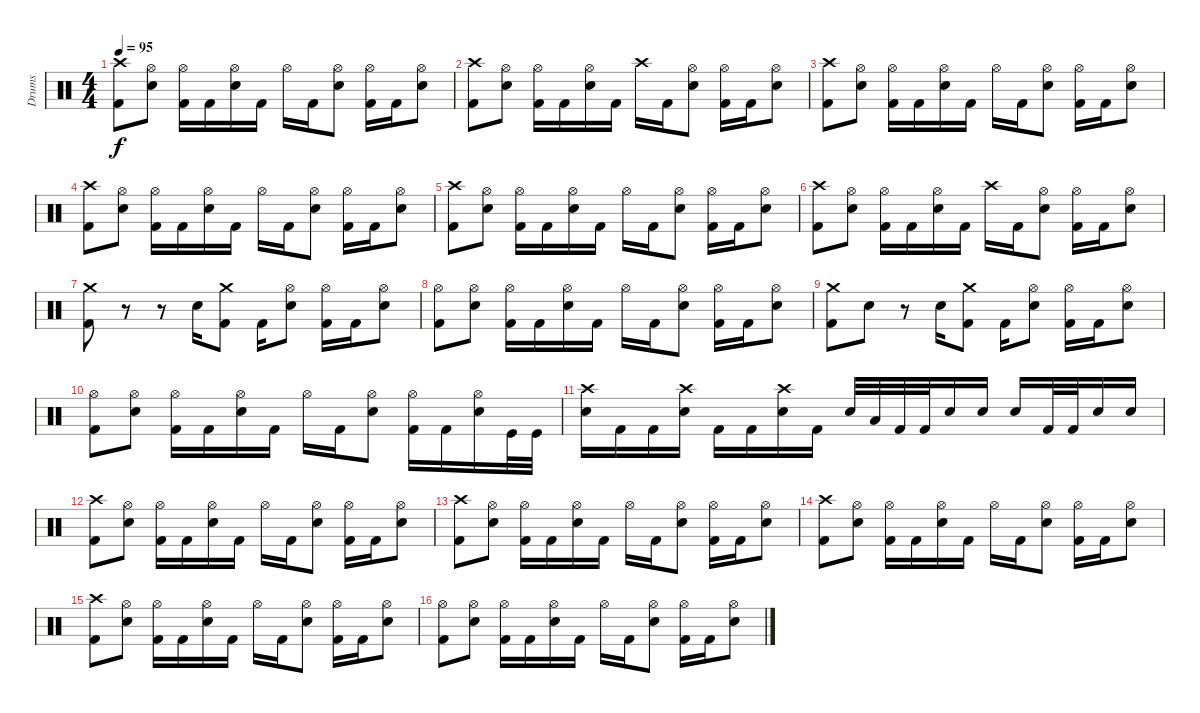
\track ("Drums" "Drums") {instrument percussion}
\staff {score}
\articulation defaults
\ts (4 4)
\tempo 95
\clef neutral
\ks c
("Crash high (hit)" "Kick (hit) 2").8{dy f} ("Hi-Hat (open)" "Snare (hit) 2").8 ("Hi-Hat (open)" "Kick (hit) 2").16 "Kick (hit) 2".16 ("Hi-Hat (open)" "Snare (hit) 2").16 "Kick (hit) 2".16 "Hi-Hat (open)".16 "Kick (hit) 2".16 ("Hi-Hat (open)" "Snare (hit) 2").8 ("Hi-Hat (open)" "Kick (hit) 2").16 "Kick (hit) 2".16 ("Hi-Hat (open)" "Snare (hit) 2").8 |
("Crash high (hit)" "Kick (hit) 2").8 ("Hi-Hat (open)" "Snare (hit) 2").8 ("Hi-Hat (open)" "Kick (hit) 2").16 "Kick (hit) 2".16 ("Hi-Hat (open)" "Snare (hit) 2").16 "Kick (hit) 2".16 "Crash high (hit)".16 "Kick (hit) 2".16 ("Hi-Hat (open)" "Snare (hit) 2").8 ("Hi-Hat (open)" "Kick (hit) 2").16 "Kick (hit) 2".16 ("Hi-Hat (open)" "Snare (hit) 2").8 |
("Crash high (hit)" "Kick (hit) 2").8 ("Hi-Hat (open)" "Snare (hit) 2").8 ("Hi-Hat (open)" "Kick (hit) 2").16 "Kick (hit) 2".16 ("Hi-Hat (open)" "Snare (hit) 2").16 "Kick (hit) 2".16 "Hi-Hat (open)".16 "Kick (hit) 2".16 ("Hi-Hat (open)" "Snare (hit) 2").8 ("Hi-Hat (open)" "Kick (hit) 2").16 "Kick (hit) 2".16 ("Hi-Hat (open)" "Snare (hit) 2").8 |
("Crash high (hit)" "Kick (hit) 2").8 ("Hi-Hat (open)" "Snare (hit) 2").8 ("Hi-Hat (open)" "Kick (hit) 2").16 "Kick (hit) 2".16 ("Hi-Hat (open)" "Snare (hit) 2").16 "Kick (hit) 2".16 "Hi-Hat (open)".16 "Kick (hit) 2".16 ("Hi-Hat (open)" "Snare (hit) 2").8 ("Hi-Hat (open)" "Kick (hit) 2").16 "Kick (hit) 2".16 ("Hi-Hat (open)" "Snare (hit) 2").8 |
("Crash high (hit)" "Kick (hit) 2").8 ("Hi-Hat (open)" "Snare (hit) 2").8 ("Hi-Hat (open)" "Kick (hit) 2").16 "Kick (hit) 2".16 ("Hi-Hat (open)" "Snare (hit) 2").16 "Kick (hit) 2".16 "Hi-Hat (open)".16 "Kick (hit) 2".16 ("Hi-Hat (open)" "Snare (hit) 2").8 ("Hi-Hat (open)" "Kick (hit) 2").16 "Kick (hit) 2".16 ("Hi-Hat (open)" "Snare (hit) 2").8 |
("Crash high (hit)" "Kick (hit) 2").8 ("Hi-Hat (open)" "Snare (hit) 2").8 ("Hi-Hat (open)" "Kick (hit) 2").16 "Kick (hit) 2".16 ("Hi-Hat (open)" "Snare (hit) 2").16 "Kick (hit) 2".16 "Crash high (hit)".16 "Kick (hit) 2".16 ("Hi-Hat (open)" "Snare (hit) 2").8 ("Hi-Hat (open)" "Kick (hit) 2").16 "Kick (hit) 2".16 ("Hi-Hat (open)" "Snare (hit) 2").8 |
("Kick (hit) 2" "Crash medium (hit)").8 r.8 r.8 "Snare (hit) 2".16 ("Kick (hit) 2" "Crash medium (hit)").8 "Kick (hit) 2".16 ("Snare (hit) 2" "Hi-Hat (open)").8 ("Kick (hit) 2" "Hi-Hat (open)").16 "Kick (hit) 2".16 ("Snare (hit) 2" "Hi-Hat (open)").8 |
("Hi-Hat (open)" "Kick (hit) 2").8 ("Hi-Hat (open)" "Snare (hit) 2").8 ("Hi-Hat (open)" "Kick (hit) 2").16 "Kick (hit) 2".16 ("Hi-Hat (open)" "Snare (hit) 2").16 "Kick (hit) 2".16 "Hi-Hat (open)".16 "Kick (hit) 2".16 ("Hi-Hat (open)" "Snare (hit) 2").8 ("Hi-Hat (open)" "Kick (hit) 2").16 "Kick (hit) 2".16 ("Hi-Hat (open)" "Snare (hit) 2").8 |
("Kick (hit) 2" "Crash medium (hit)").8 "Snare (hit) 2".8 r.8 "Snare (hit) 2".16 ("Kick (hit) 2" "Crash medium (hit)").8 "Kick (hit) 2".16 ("Snare (hit) 2" "Hi-Hat (open)").8 ("Kick (hit) 2" "Hi-Hat (open)").16 "Kick (hit) 2".16 ("Snare (hit) 2" "Hi-Hat (open)").8 |
("Hi-Hat (open)" "Kick (hit) 2").8 ("Hi-Hat (open)" "Snare (hit) 2").8 ("Hi-Hat (open)" "Kick (hit) 2").16 "Kick (hit) 2".16 ("Hi-Hat (open)" "Snare (hit) 2").16 "Kick (hit) 2".16 "Hi-Hat (open)".16 "Kick (hit) 2".16 ("Hi-Hat (open)" "Snare (hit) 2").8 ("Hi-Hat (open)" "Kick (hit) 2").16 "Kick (hit) 2".16 ("Hi-Hat (open)" "Snare (hit) 2").16 "Kick (hit)".32 "Kick (hit)".32 |
("Crash high (hit)" "Snare (hit) 2").16 "Kick (hit) 2".16 "Kick (hit) 2".16 ("Crash high (hit)" "Snare (hit) 2").16 "Kick (hit) 2".16 "Kick (hit) 2".16 ("Crash high (hit)" "Snare (hit) 2").16 "Kick (hit) 2".16 "Snare (hit) 2".32 "Low Tom (hit)".32 "Kick (hit) 2".32 "Kick (hit) 2".32 "Snare (hit) 2".16 "Snare (hit) 2".16 "Snare (hit) 2".16 "Kick (hit) 2".32 "Kick (hit) 2".32 "Snare (hit) 2".16 "Snare (hit) 2".16 |
("Crash high (hit)" "Kick (hit) 2").8 ("Hi-Hat (open)" "Snare (hit) 2").8 ("Hi-Hat (open)" "Kick (hit) 2").16 "Kick (hit) 2".16 ("Hi-Hat (open)" "Snare (hit) 2").16 "Kick (hit) 2".16 "Hi-Hat (open)".16 "Kick (hit) 2".16 ("Hi-Hat (open)" "Snare (hit) 2").8 ("Hi-Hat (open)" "Kick (hit) 2").16 "Kick (hit) 2".16 ("Hi-Hat (open)" "Snare (hit) 2").8 |
("Crash high (hit)" "Kick (hit) 2").8 ("Hi-Hat (open)" "Snare (hit) 2").8 ("Hi-Hat (open)" "Kick (hit) 2").16 "Kick (hit) 2".16 ("Hi-Hat (open)" "Snare (hit) 2").16 "Kick (hit) 2".16 "Hi-Hat (open)".16 "Kick (hit) 2".16 ("Hi-Hat (open)" "Snare (hit) 2").8 ("Hi-Hat (open)" "Kick (hit) 2").16 "Kick (hit) 2".16 ("Hi-Hat (open)" "Snare (hit) 2").8 |
("Crash high (hit)" "Kick (hit) 2").8 ("Hi-Hat (open)" "Snare (hit) 2").8 ("Hi-Hat (open)" "Kick (hit) 2").16 "Kick (hit) 2".16 ("Hi-Hat (open)" "Snare (hit) 2").16 "Kick (hit) 2".16 "Hi-Hat (open)".16 "Kick (hit) 2".16 ("Hi-Hat (open)" "Snare (hit) 2").8 ("Hi-Hat (open)" "Kick (hit) 2").16 "Kick (hit) 2".16 ("Hi-Hat (open)" "Snare (hit) 2").8 |
("Crash high (hit)" "Kick (hit) 2").8 ("Hi-Hat (open)" "Snare (hit) 2").8 ("Hi-Hat (open)" "Kick (hit) 2").16 "Kick (hit) 2".16 ("Hi-Hat (open)" "Snare (hit) 2").16 "Kick (hit) 2".16 "Hi-Hat (open)".16 "Kick (hit) 2".16 ("Hi-Hat (open)" "Snare (hit) 2").8 ("Hi-Hat (open)" "Kick (hit) 2").16 "Kick (hit) 2".16 ("Hi-Hat (open)" "Snare (hit) 2").8 |
("Hi-Hat (open)" "Kick (hit) 2").8 ("Hi-Hat (open)" "Snare (hit) 2").8 ("Hi-Hat (open)" "Kick (hit) 2").16 "Kick (hit) 2".16 ("Hi-Hat (open)" "Snare (hit) 2").16 "Kick (hit) 2".16 "Hi-Hat (open)".16 "Kick (hit) 2".16 ("Hi-Hat (open)" "Snare (hit) 2").8 ("Hi-Hat (open)" "Kick (hit) 2").16 "Kick (hit) 2".16 ("Hi-Hat (open)" "Snare (hit) 2").8
